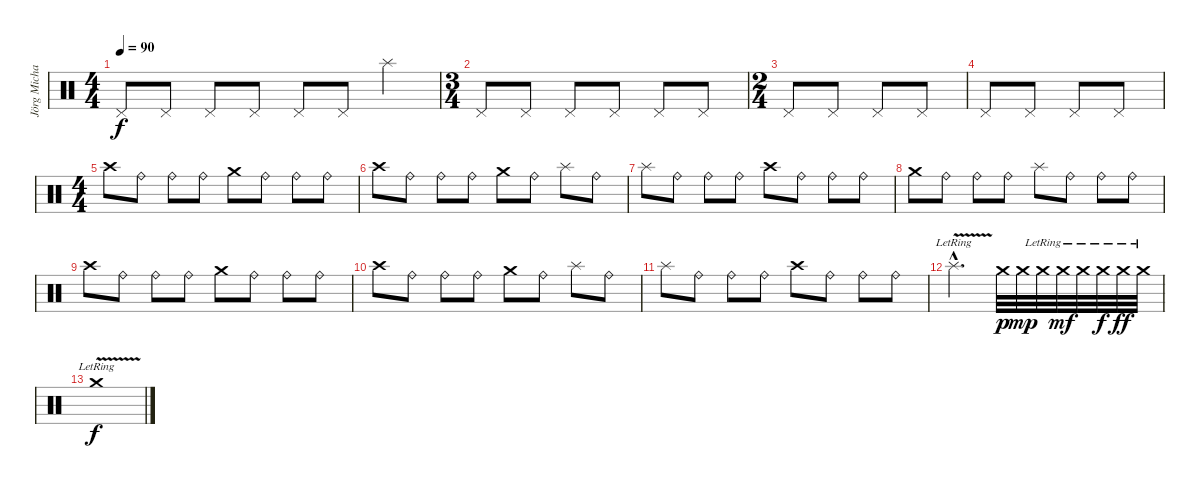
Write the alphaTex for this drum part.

\track ("Jörg Michael Drums" "Jörg Micha") {instrument percussion}
\staff {score}
\articulation defaults
\ts (4 4)
\tempo 90
\clef neutral
\ks c "Pedal Hi-Hat (hit)".8{dy f} "Pedal Hi-Hat (hit)".8 "Pedal Hi-Hat (hit)".8 "Pedal Hi-Hat (hit)".8 "Pedal Hi-Hat (hit)".8 "Pedal Hi-Hat (hit)".8 "Splash (hit)".4
|
\ts (3 4)
"Pedal Hi-Hat (hit)".8 "Pedal Hi-Hat (hit)".8 "Pedal Hi-Hat (hit)".8 "Pedal Hi-Hat (hit)".8 "Pedal Hi-Hat (hit)".8 "Pedal Hi-Hat (hit)".8 |
\ts (2 4)
"Pedal Hi-Hat (hit)".8 "Pedal Hi-Hat (hit)".8 "Pedal Hi-Hat (hit)".8 "Pedal Hi-Hat (hit)".8 |
"Pedal Hi-Hat (hit)".8 "Pedal Hi-Hat (hit)".8 "Pedal Hi-Hat (hit)".8 "Pedal Hi-Hat (hit)".8 |
\ts (4 4)
"Crash high (hit)".8 "Ride (bell)".8 "Ride (bell)".8 "Ride (bell)".8 "Crash medium (hit)".8 "Ride (bell)".8 "Ride (bell)".8 "Ride (bell)".8 |
"Crash high (hit)".8 "Ride (bell)".8 "Ride (bell)".8 "Ride (bell)".8 "Crash medium (hit)".8 "Ride (bell)".8 "Splash (hit)".8 "Ride (bell)".8 |
"Splash (hit)".8 "Ride (bell)".8 "Ride (bell)".8 "Ride (bell)".8 "Crash high (hit)".8 "Ride (bell)".8 "Ride (bell)".8 "Ride (bell)".8 |
"Crash medium (hit)".8 "Ride (bell)".8 "Ride (bell)".8 "Ride (bell)".8 "Splash (hit)".8 "Ride (bell)".8 "Ride (bell)".8 "Ride (bell)".8 |
"Crash high (hit)".8 "Ride (bell)".8 "Ride (bell)".8 "Ride (bell)".8 "Crash medium (hit)".8 "Ride (bell)".8 "Ride (bell)".8 "Ride (bell)".8 |
"Crash high (hit)".8 "Ride (bell)".8 "Ride (bell)".8 "Ride (bell)".8 "Crash medium (hit)".8 "Ride (bell)".8 "Splash (hit)".8 "Ride (bell)".8 |
"Splash (hit)".8 "Ride (bell)".8 "Ride (bell)".8 "Ride (bell)".8 "Crash high (hit)".8 "Ride (bell)".8 "Ride (bell)".8 "Ride (bell)".8 |
"Splash (hit)"{v hac lr}.2{d} "Crash medium (hit)"{tr (57 16)}.32{dy p} "Crash medium (hit)"{tr (57 16)}.32{dy mp} "Crash medium (hit)"{lr}.32 "Crash medium (hit)"{lr}.32{dy mf} "Crash medium (hit)"{lr}.32 "Crash medium (hit)"{lr}.32{dy f} "Crash medium (hit)"{lr}.32{dy ff} "Crash medium (hit)"{lr}.32 |
"Crash medium (hit)"{v lr}.1{dy f}
